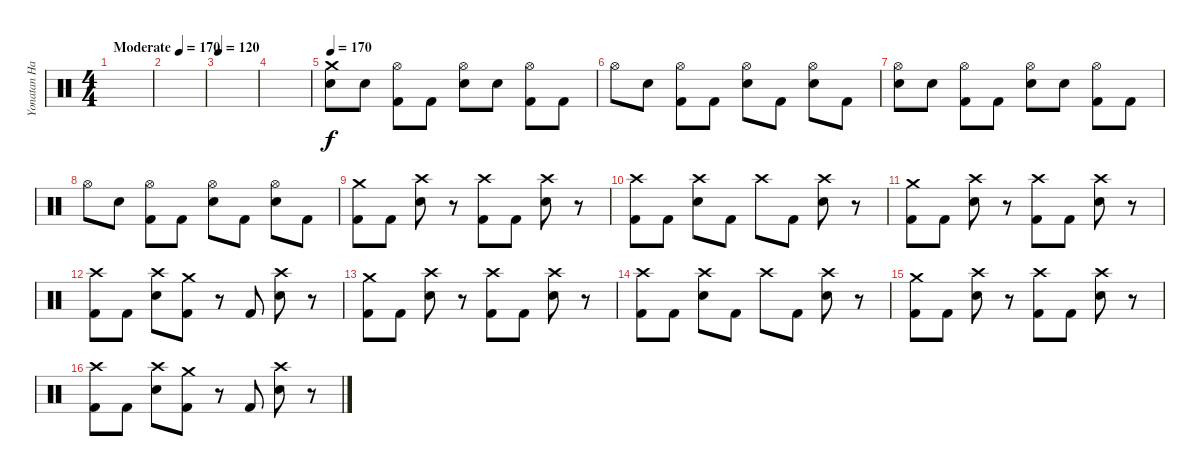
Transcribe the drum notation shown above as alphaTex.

\track ("Yonatan Harpak (drums)" "Yonatan Ha") {instrument percussion}
\staff {score}
\articulation defaults
\ts (4 4)
\tempo (170 "Moderate")
\tempo 120
\tempo (170 "Moderate")
\clef neutral
\ks c
|
|
\tempo 120
|
|
\tempo 170
("Crash medium (hit)" "Snare (hit) 2").8 "Snare (hit) 2".8 ("Hi-Hat (open)" "Kick (hit) 2").8 "Kick (hit) 2".8 ("Hi-Hat (open)" "Snare (hit) 2").8 "Snare (hit) 2".8 ("Hi-Hat (open)" "Kick (hit) 2").8 "Kick (hit) 2".8 |
"Hi-Hat (open)".8 "Snare (hit) 2".8 ("Hi-Hat (open)" "Kick (hit) 2").8 "Kick (hit) 2".8 ("Hi-Hat (open)" "Snare (hit) 2").8 "Kick (hit) 2".8 ("Hi-Hat (open)" "Snare (hit) 2").8 "Kick (hit) 2".8 |
("Hi-Hat (open)" "Snare (hit) 2").8 "Snare (hit) 2".8 ("Hi-Hat (open)" "Kick (hit) 2").8 "Kick (hit) 2".8 ("Hi-Hat (open)" "Snare (hit) 2").8 "Snare (hit) 2".8 ("Hi-Hat (open)" "Kick (hit) 2").8 "Kick (hit) 2".8 |
"Hi-Hat (open)".8 "Snare (hit) 2".8 ("Hi-Hat (open)" "Kick (hit) 2").8 "Kick (hit) 2".8 ("Hi-Hat (open)" "Snare (hit) 2").8 "Kick (hit) 2".8 ("Hi-Hat (open)" "Snare (hit) 2").8 "Kick (hit) 2".8 |
("Crash medium (hit)" "Kick (hit) 2").8 "Kick (hit) 2".8 ("Crash high (hit)" "Snare (hit) 2").8 r.8 ("Crash high (hit)" "Kick (hit) 2").8 "Kick (hit) 2".8 ("Crash high (hit)" "Snare (hit) 2").8 r.8 |
("Crash high (hit)" "Kick (hit) 2").8 "Kick (hit) 2".8 ("Crash high (hit)" "Snare (hit) 2").8 "Kick (hit) 2".8 "Crash high (hit)".8 "Kick (hit) 2".8 ("Crash high (hit)" "Snare (hit) 2").8 r.8 |
("Crash medium (hit)" "Kick (hit) 2").8 "Kick (hit) 2".8 ("Crash high (hit)" "Snare (hit) 2").8 r.8 ("Crash high (hit)" "Kick (hit) 2").8 "Kick (hit) 2".8 ("Crash high (hit)" "Snare (hit) 2").8 r.8 |
("Crash high (hit)" "Kick (hit) 2").8 "Kick (hit) 2".8 ("Crash high (hit)" "Snare (hit) 2").8 ("Crash medium (hit)" "Kick (hit) 2").8 r.8 "Kick (hit) 2".8 ("Crash high (hit)" "Snare (hit) 2").8 r.8 |
("Crash medium (hit)" "Kick (hit) 2").8 "Kick (hit) 2".8 ("Crash high (hit)" "Snare (hit) 2").8 r.8 ("Crash high (hit)" "Kick (hit) 2").8 "Kick (hit) 2".8 ("Crash high (hit)" "Snare (hit) 2").8 r.8 |
("Crash high (hit)" "Kick (hit) 2").8 "Kick (hit) 2".8 ("Crash high (hit)" "Snare (hit) 2").8 "Kick (hit) 2".8 "Crash high (hit)".8 "Kick (hit) 2".8 ("Crash high (hit)" "Snare (hit) 2").8 r.8 |
("Crash medium (hit)" "Kick (hit) 2").8 "Kick (hit) 2".8 ("Crash high (hit)" "Snare (hit) 2").8 r.8 ("Crash high (hit)" "Kick (hit) 2").8 "Kick (hit) 2".8 ("Crash high (hit)" "Snare (hit) 2").8 r.8 |
("Crash high (hit)" "Kick (hit) 2").8 "Kick (hit) 2".8 ("Crash high (hit)" "Snare (hit) 2").8 ("Crash medium (hit)" "Kick (hit) 2").8 r.8 "Kick (hit) 2".8 ("Crash high (hit)" "Snare (hit) 2").8 r.8
